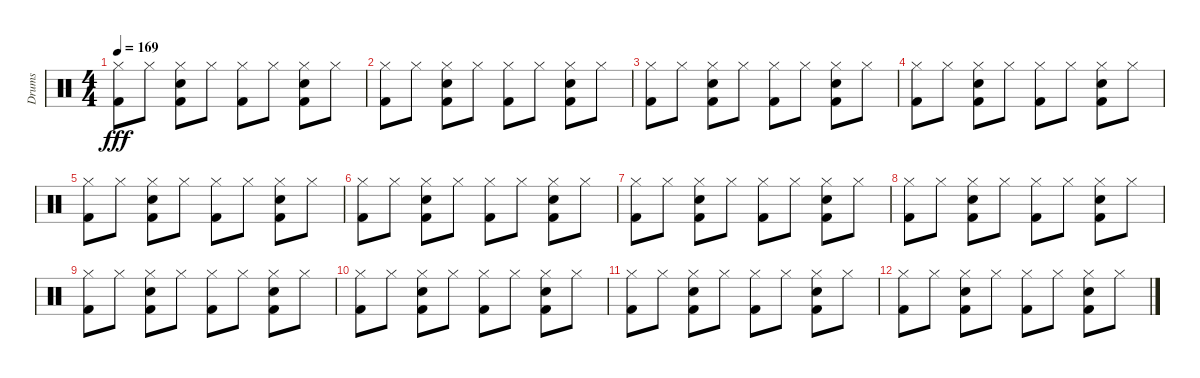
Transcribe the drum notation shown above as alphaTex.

\track ("Drums" "Drums") {instrument percussion}
\staff {score}
\articulation defaults
\ts (4 4)
\tempo 169
\clef neutral
\ks c
("Kick (hit) 2" "Hi-Hat (closed)").8{dy fff} "Hi-Hat (closed)".8 ("Snare (hit) 2" "Kick (hit) 2" "Hi-Hat (closed)").8 "Hi-Hat (closed)".8 ("Kick (hit) 2" "Hi-Hat (closed)").8 "Hi-Hat (closed)".8 ("Kick (hit) 2" "Snare (hit) 2" "Hi-Hat (closed)").8 "Hi-Hat (closed)".8 |
("Kick (hit) 2" "Hi-Hat (closed)").8 "Hi-Hat (closed)".8 ("Snare (hit) 2" "Kick (hit) 2" "Hi-Hat (closed)").8 "Hi-Hat (closed)".8 ("Kick (hit) 2" "Hi-Hat (closed)").8 "Hi-Hat (closed)".8 ("Kick (hit) 2" "Snare (hit) 2" "Hi-Hat (closed)").8 "Hi-Hat (closed)".8 |
("Kick (hit) 2" "Hi-Hat (closed)").8 "Hi-Hat (closed)".8 ("Snare (hit) 2" "Kick (hit) 2" "Hi-Hat (closed)").8 "Hi-Hat (closed)".8 ("Kick (hit) 2" "Hi-Hat (closed)").8 "Hi-Hat (closed)".8 ("Kick (hit) 2" "Snare (hit) 2" "Hi-Hat (closed)").8 "Hi-Hat (closed)".8 |
("Kick (hit) 2" "Hi-Hat (closed)").8 "Hi-Hat (closed)".8 ("Snare (hit) 2" "Kick (hit) 2" "Hi-Hat (closed)").8 "Hi-Hat (closed)".8 ("Kick (hit) 2" "Hi-Hat (closed)").8 "Hi-Hat (closed)".8 ("Kick (hit) 2" "Snare (hit) 2" "Hi-Hat (closed)").8 "Hi-Hat (closed)".8 |
("Kick (hit) 2" "Hi-Hat (closed)").8 "Hi-Hat (closed)".8 ("Snare (hit) 2" "Kick (hit) 2" "Hi-Hat (closed)").8 "Hi-Hat (closed)".8 ("Kick (hit) 2" "Hi-Hat (closed)").8 "Hi-Hat (closed)".8 ("Kick (hit) 2" "Snare (hit) 2" "Hi-Hat (closed)").8 "Hi-Hat (closed)".8 |
("Kick (hit) 2" "Hi-Hat (closed)").8 "Hi-Hat (closed)".8 ("Snare (hit) 2" "Kick (hit) 2" "Hi-Hat (closed)").8 "Hi-Hat (closed)".8 ("Kick (hit) 2" "Hi-Hat (closed)").8 "Hi-Hat (closed)".8 ("Kick (hit) 2" "Snare (hit) 2" "Hi-Hat (closed)").8 "Hi-Hat (closed)".8 |
("Kick (hit) 2" "Hi-Hat (closed)").8 "Hi-Hat (closed)".8 ("Snare (hit) 2" "Kick (hit) 2" "Hi-Hat (closed)").8 "Hi-Hat (closed)".8 ("Kick (hit) 2" "Hi-Hat (closed)").8 "Hi-Hat (closed)".8 ("Kick (hit) 2" "Snare (hit) 2" "Hi-Hat (closed)").8 "Hi-Hat (closed)".8 |
("Kick (hit) 2" "Hi-Hat (closed)").8 "Hi-Hat (closed)".8 ("Snare (hit) 2" "Kick (hit) 2" "Hi-Hat (closed)").8 "Hi-Hat (closed)".8 ("Kick (hit) 2" "Hi-Hat (closed)").8 "Hi-Hat (closed)".8 ("Kick (hit) 2" "Snare (hit) 2" "Hi-Hat (closed)").8 "Hi-Hat (closed)".8 |
("Kick (hit) 2" "Hi-Hat (closed)").8 "Hi-Hat (closed)".8 ("Snare (hit) 2" "Kick (hit) 2" "Hi-Hat (closed)").8 "Hi-Hat (closed)".8 ("Kick (hit) 2" "Hi-Hat (closed)").8 "Hi-Hat (closed)".8 ("Kick (hit) 2" "Snare (hit) 2" "Hi-Hat (closed)").8 "Hi-Hat (closed)".8 |
("Kick (hit) 2" "Hi-Hat (closed)").8 "Hi-Hat (closed)".8 ("Snare (hit) 2" "Kick (hit) 2" "Hi-Hat (closed)").8 "Hi-Hat (closed)".8 ("Kick (hit) 2" "Hi-Hat (closed)").8 "Hi-Hat (closed)".8 ("Kick (hit) 2" "Snare (hit) 2" "Hi-Hat (closed)").8 "Hi-Hat (closed)".8 |
("Kick (hit) 2" "Hi-Hat (closed)").8 "Hi-Hat (closed)".8 ("Snare (hit) 2" "Kick (hit) 2" "Hi-Hat (closed)").8 "Hi-Hat (closed)".8 ("Kick (hit) 2" "Hi-Hat (closed)").8 "Hi-Hat (closed)".8 ("Kick (hit) 2" "Snare (hit) 2" "Hi-Hat (closed)").8 "Hi-Hat (closed)".8 |
("Kick (hit) 2" "Hi-Hat (closed)").8 "Hi-Hat (closed)".8 ("Snare (hit) 2" "Kick (hit) 2" "Hi-Hat (closed)").8 "Hi-Hat (closed)".8 ("Kick (hit) 2" "Hi-Hat (closed)").8 "Hi-Hat (closed)".8 ("Kick (hit) 2" "Snare (hit) 2" "Hi-Hat (closed)").8 "Hi-Hat (closed)".8
